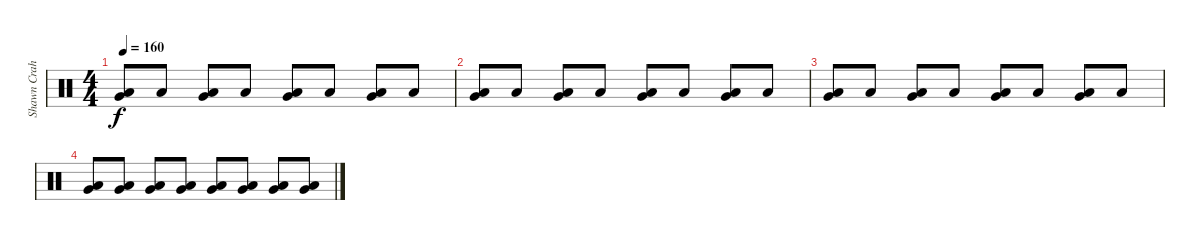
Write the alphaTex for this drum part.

\track ("Shawn Crahan" "Shawn Crah") {instrument percussion}
\staff {score}
\articulation defaults
\ts (4 4)
\tempo 160
\clef neutral
\ks c
("Very Low Tom (hit)" "Low Floor Tom (hit)").8{dy f} "Low Floor Tom (hit)".8 ("Very Low Tom (hit)" "Low Floor Tom (hit)").8 "Low Floor Tom (hit)".8 ("Very Low Tom (hit)" "Low Floor Tom (hit)").8 "Low Floor Tom (hit)".8 ("Very Low Tom (hit)" "Low Floor Tom (hit)").8 "Low Floor Tom (hit)".8 |
("Very Low Tom (hit)" "Low Floor Tom (hit)").8 "Low Floor Tom (hit)".8 ("Very Low Tom (hit)" "Low Floor Tom (hit)").8 "Low Floor Tom (hit)".8 ("Very Low Tom (hit)" "Low Floor Tom (hit)").8 "Low Floor Tom (hit)".8 ("Very Low Tom (hit)" "Low Floor Tom (hit)").8 "Low Floor Tom (hit)".8 |
("Very Low Tom (hit)" "Low Floor Tom (hit)").8 "Low Floor Tom (hit)".8 ("Very Low Tom (hit)" "Low Floor Tom (hit)").8 "Low Floor Tom (hit)".8 ("Very Low Tom (hit)" "Low Floor Tom (hit)").8 "Low Floor Tom (hit)".8 ("Very Low Tom (hit)" "Low Floor Tom (hit)").8 "Low Floor Tom (hit)".8 |
("Very Low Tom (hit)" "Low Floor Tom (hit)").8 ("Very Low Tom (hit)" "Low Floor Tom (hit)").8 ("Very Low Tom (hit)" "Low Floor Tom (hit)").8 ("Very Low Tom (hit)" "Low Floor Tom (hit)").8 ("Very Low Tom (hit)" "Low Floor Tom (hit)").8 ("Very Low Tom (hit)" "Low Floor Tom (hit)").8 ("Very Low Tom (hit)" "Low Floor Tom (hit)").8 ("Very Low Tom (hit)" "Low Floor Tom (hit)").8
